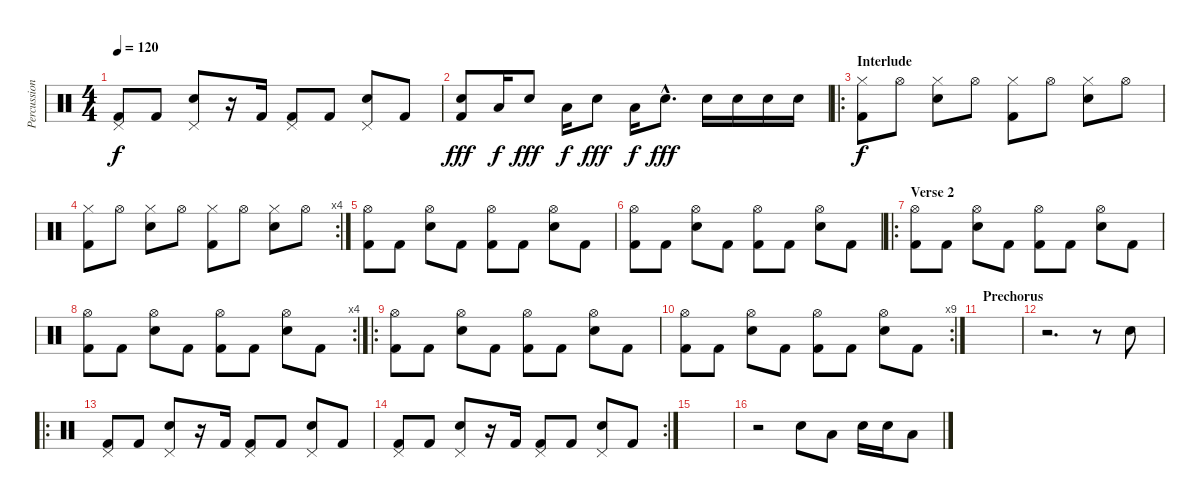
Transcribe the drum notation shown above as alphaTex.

\track ("Percussion" "Percussion") {instrument percussion}
\staff {score}
\articulation defaults
\ts (4 4)
\tempo 120
\clef neutral
\ks c
("Pedal Hi-Hat (hit)" "Kick (hit) 2").8{dy f} "Kick (hit) 2".8 ("Pedal Hi-Hat (hit)" "Electric Snare (hit)").8 r.16 "Kick (hit) 2".16 ("Pedal Hi-Hat (hit)" "Kick (hit) 2").8 "Kick (hit) 2".8 ("Pedal Hi-Hat (hit)" "Electric Snare (hit)").8 "Kick (hit) 2".8 |
("Electric Snare (hit)" "Kick (hit) 2").8{dy fff} "Low Floor Tom (hit)".16{dy f} "Electric Snare (hit)".8{dy fff} "Low Floor Tom (hit)".16{dy f} "Electric Snare (hit)".8{dy fff} "Low Floor Tom (hit)".16{dy f} "Electric Snare (hit)"{hac}.8{d dy fff} "Electric Snare (hit)".16 "Electric Snare (hit)".16 "Electric Snare (hit)".16 "Electric Snare (hit)".16 |
\ro
\section ("" "Interlude")
("Hi-Hat (closed)" "Kick (hit) 2").8{dy f} "Hi-Hat (open)".8 ("Hi-Hat (closed)" "Electric Snare (hit)").8 "Hi-Hat (open)".8 ("Hi-Hat (closed)" "Kick (hit) 2").8 "Hi-Hat (open)".8 ("Hi-Hat (closed)" "Electric Snare (hit)").8 "Hi-Hat (open)".8 |
\rc 4
("Hi-Hat (closed)" "Kick (hit) 2").8 "Hi-Hat (open)".8 ("Hi-Hat (closed)" "Electric Snare (hit)").8 "Hi-Hat (open)".8 ("Hi-Hat (closed)" "Kick (hit) 2").8 "Hi-Hat (open)".8 ("Hi-Hat (closed)" "Electric Snare (hit)").8 "Hi-Hat (open)".8 |
("Hi-Hat (open)" "Kick (hit) 2").8 "Kick (hit) 2".8 ("Hi-Hat (open)" "Electric Snare (hit)").8 "Kick (hit) 2".8 ("Hi-Hat (open)" "Kick (hit) 2").8 "Kick (hit) 2".8 ("Hi-Hat (open)" "Electric Snare (hit)").8 "Kick (hit) 2".8 |
("Hi-Hat (open)" "Kick (hit) 2").8 "Kick (hit) 2".8 ("Hi-Hat (open)" "Electric Snare (hit)").8 "Kick (hit) 2".8 ("Hi-Hat (open)" "Kick (hit) 2").8 "Kick (hit) 2".8 ("Hi-Hat (open)" "Electric Snare (hit)").8 "Kick (hit) 2".8 |
\ro
\section ("" "Verse 2")
("Hi-Hat (open)" "Kick (hit) 2").8 "Kick (hit) 2".8 ("Hi-Hat (open)" "Electric Snare (hit)").8 "Kick (hit) 2".8 ("Hi-Hat (open)" "Kick (hit) 2").8 "Kick (hit) 2".8 ("Hi-Hat (open)" "Electric Snare (hit)").8 "Kick (hit) 2".8 |
\rc 4
("Hi-Hat (open)" "Kick (hit) 2").8 "Kick (hit) 2".8 ("Hi-Hat (open)" "Electric Snare (hit)").8 "Kick (hit) 2".8 ("Hi-Hat (open)" "Kick (hit) 2").8 "Kick (hit) 2".8 ("Hi-Hat (open)" "Electric Snare (hit)").8 "Kick (hit) 2".8 |
\ro
("Hi-Hat (open)" "Kick (hit) 2").8 "Kick (hit) 2".8 ("Hi-Hat (open)" "Electric Snare (hit)").8 "Kick (hit) 2".8 ("Hi-Hat (open)" "Kick (hit) 2").8 "Kick (hit) 2".8 ("Hi-Hat (open)" "Electric Snare (hit)").8 "Kick (hit) 2".8 |
\rc 9
("Hi-Hat (open)" "Kick (hit) 2").8 "Kick (hit) 2".8 ("Hi-Hat (open)" "Electric Snare (hit)").8 "Kick (hit) 2".8 ("Hi-Hat (open)" "Kick (hit) 2").8 "Kick (hit) 2".8 ("Hi-Hat (open)" "Electric Snare (hit)").8 "Kick (hit) 2".8 |
\section ("" "Prechorus")
|
r.2{d} r.8 "Electric Snare (hit)".8 |
\ro
("Pedal Hi-Hat (hit)" "Kick (hit) 2").8 "Kick (hit) 2".8 ("Pedal Hi-Hat (hit)" "Electric Snare (hit)").8 r.16 "Kick (hit) 2".16 ("Pedal Hi-Hat (hit)" "Kick (hit) 2").8 "Kick (hit) 2".8 ("Pedal Hi-Hat (hit)" "Electric Snare (hit)").8 "Kick (hit) 2".8 |
\rc 2
("Pedal Hi-Hat (hit)" "Kick (hit) 2").8 "Kick (hit) 2".8 ("Pedal Hi-Hat (hit)" "Electric Snare (hit)").8 r.16 "Kick (hit) 2".16 ("Pedal Hi-Hat (hit)" "Kick (hit) 2").8 "Kick (hit) 2".8 ("Pedal Hi-Hat (hit)" "Electric Snare (hit)").8 "Kick (hit) 2".8 |
|
r.2 "Electric Snare (hit)".8 "Low Floor Tom (hit)".8 "Electric Snare (hit)".16 "Electric Snare (hit)".16 "Low Floor Tom (hit)".8
